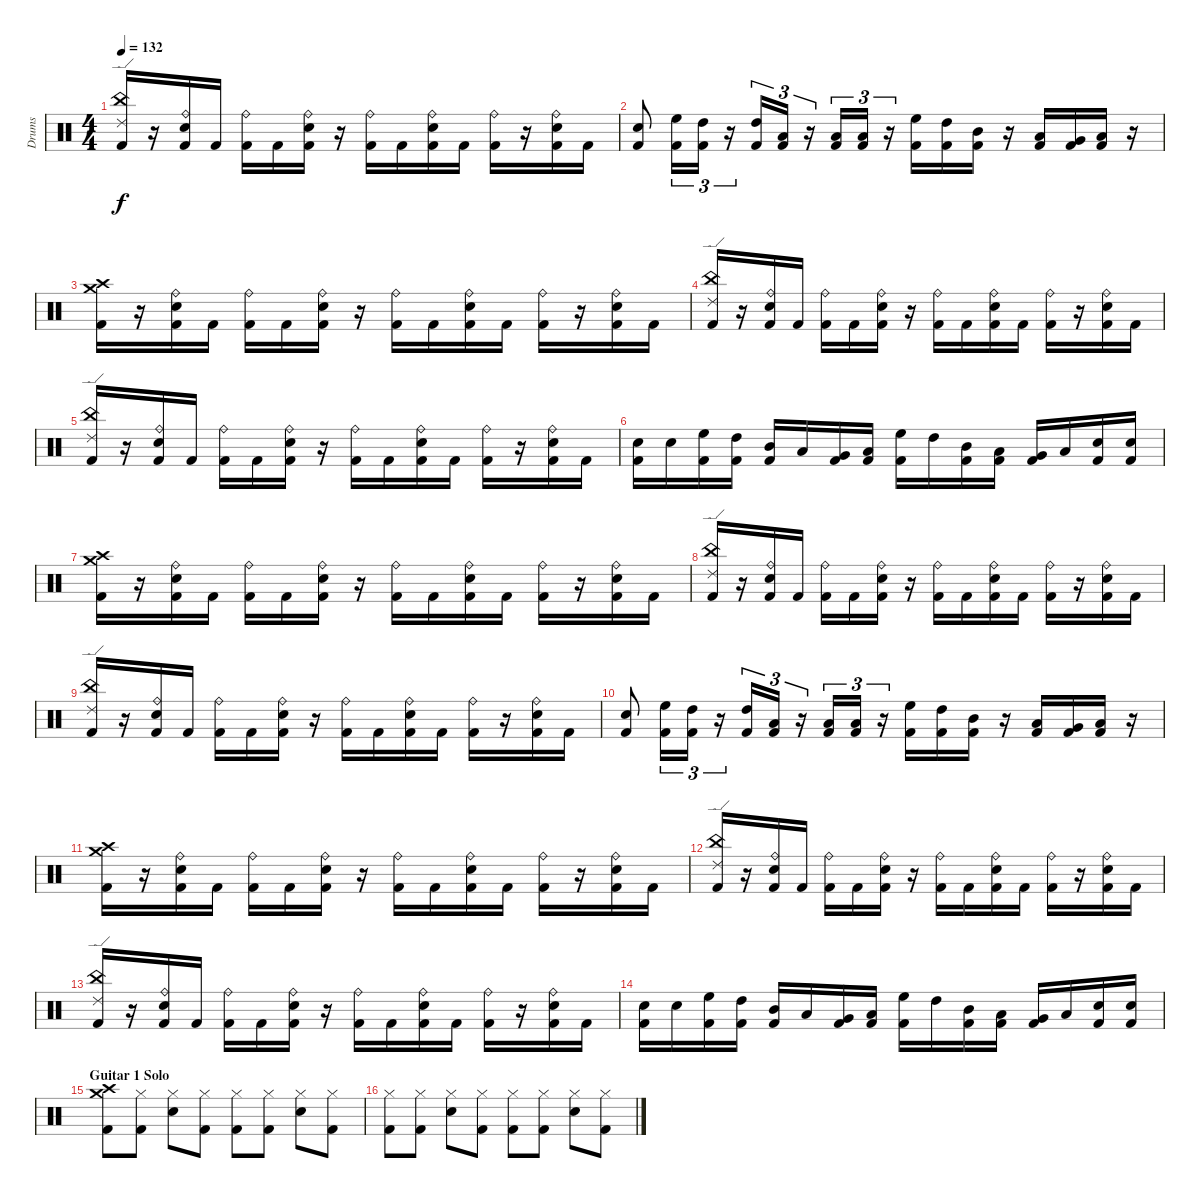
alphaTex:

\track ("Drums" "Drums") {instrument percussion}
\staff {score}
\articulation defaults
\ts (4 4)
\tempo 132
\clef neutral
\ks c
("Ride (edge) 2" "China (hit)" "Kick (hit) 2").16{dy f} r.16 ("Ride (bell)" "Electric Snare (hit)" "Kick (hit) 2").16 "Kick (hit) 2".16 ("Ride (bell)" "Kick (hit) 2").16 "Kick (hit) 2".16 ("Ride (bell)" "Electric Snare (hit)" "Kick (hit) 2").16 r.16 ("Ride (bell)" "Kick (hit) 2").16 "Kick (hit) 2".16 ("Ride (bell)" "Electric Snare (hit)" "Kick (hit) 2").16 "Kick (hit) 2".16 ("Ride (bell)" "Kick (hit) 2").16 r.16 ("Ride (bell)" "Electric Snare (hit)" "Kick (hit) 2").16 "Kick (hit) 2".16 |
("Electric Snare (hit)" "Kick (hit) 2").8 ("High Floor Tom (hit)" "Kick (hit) 2").16{tu (3 2)} ("High Tom (hit)" "Kick (hit) 2").16{tu (3 2)} r.16{tu (3 2)} ("High Tom (hit)" "Kick (hit) 2").16{tu (3 2)} ("Low Tom (hit)" "Kick (hit) 2").16{tu (3 2)} r.16{tu (3 2)} ("Low Tom (hit)" "Kick (hit) 2").16{tu (3 2)} ("Low Floor Tom (hit)" "Kick (hit) 2").16{tu (3 2)} r.16{tu (3 2)} ("High Floor Tom (hit)" "Kick (hit) 2").16 ("High Tom (hit)" "Kick (hit) 2").16 ("Mid Tom (hit)" "Kick (hit) 2").16 r.16 ("Low Tom (hit)" "Kick (hit) 2").16 ("Very Low Tom (hit)" "Kick (hit) 2").16 ("Low Floor Tom (hit)" "Kick (hit) 2").16 r.16 |
("Crash medium (hit)" "Crash high (hit)" "Kick (hit) 2").16 r.16 ("Ride (bell)" "Electric Snare (hit)" "Kick (hit) 2").16 "Kick (hit) 2".16 ("Ride (bell)" "Kick (hit) 2").16 "Kick (hit) 2".16 ("Ride (bell)" "Electric Snare (hit)" "Kick (hit) 2").16 r.16 ("Ride (bell)" "Kick (hit) 2").16 "Kick (hit) 2".16 ("Ride (bell)" "Electric Snare (hit)" "Kick (hit) 2").16 "Kick (hit) 2".16 ("Ride (bell)" "Kick (hit) 2").16 r.16 ("Ride (bell)" "Electric Snare (hit)" "Kick (hit) 2").16 "Kick (hit) 2".16 |
("Ride (edge) 2" "China (hit)" "Kick (hit) 2").16 r.16 ("Ride (bell)" "Electric Snare (hit)" "Kick (hit) 2").16 "Kick (hit) 2".16 ("Ride (bell)" "Kick (hit) 2").16 "Kick (hit) 2".16 ("Ride (bell)" "Electric Snare (hit)" "Kick (hit) 2").16 r.16 ("Ride (bell)" "Kick (hit) 2").16 "Kick (hit) 2".16 ("Ride (bell)" "Electric Snare (hit)" "Kick (hit) 2").16 "Kick (hit) 2".16 ("Ride (bell)" "Kick (hit) 2").16 r.16 ("Ride (bell)" "Electric Snare (hit)" "Kick (hit) 2").16 "Kick (hit) 2".16 |
("Ride (edge) 2" "China (hit)" "Kick (hit) 2").16 r.16 ("Ride (bell)" "Electric Snare (hit)" "Kick (hit) 2").16 "Kick (hit) 2".16 ("Ride (bell)" "Kick (hit) 2").16 "Kick (hit) 2".16 ("Ride (bell)" "Electric Snare (hit)" "Kick (hit) 2").16 r.16 ("Ride (bell)" "Kick (hit) 2").16 "Kick (hit) 2".16 ("Ride (bell)" "Electric Snare (hit)" "Kick (hit) 2").16 "Kick (hit) 2".16 ("Ride (bell)" "Kick (hit) 2").16 r.16 ("Ride (bell)" "Electric Snare (hit)" "Kick (hit) 2").16 "Kick (hit) 2".16 |
("Electric Snare (hit)" "Kick (hit) 2").16 "Electric Snare (hit)".16 ("High Floor Tom (hit)" "Kick (hit) 2").16 ("High Tom (hit)" "Kick (hit) 2").16 ("Mid Tom (hit)" "Kick (hit) 2").16 "Low Tom (hit)".16 ("Very Low Tom (hit)" "Kick (hit) 2").16 ("Low Floor Tom (hit)" "Kick (hit) 2").16 ("High Floor Tom (hit)" "Kick (hit) 2").16 "High Tom (hit)".16 ("Mid Tom (hit)" "Kick (hit) 2").16 ("Low Tom (hit)" "Kick (hit) 2").16 ("Very Low Tom (hit)" "Kick (hit) 2").16 "Low Floor Tom (hit)".16 ("Electric Snare (hit)" "Kick (hit) 2").16 ("Electric Snare (hit)" "Kick (hit) 2").16 |
("Crash medium (hit)" "Crash high (hit)" "Kick (hit) 2").16 r.16 ("Ride (bell)" "Electric Snare (hit)" "Kick (hit) 2").16 "Kick (hit) 2".16 ("Ride (bell)" "Kick (hit) 2").16 "Kick (hit) 2".16 ("Ride (bell)" "Electric Snare (hit)" "Kick (hit) 2").16 r.16 ("Ride (bell)" "Kick (hit) 2").16 "Kick (hit) 2".16 ("Ride (bell)" "Electric Snare (hit)" "Kick (hit) 2").16 "Kick (hit) 2".16 ("Ride (bell)" "Kick (hit) 2").16 r.16 ("Ride (bell)" "Electric Snare (hit)" "Kick (hit) 2").16 "Kick (hit) 2".16 |
("Ride (edge) 2" "China (hit)" "Kick (hit) 2").16 r.16 ("Ride (bell)" "Electric Snare (hit)" "Kick (hit) 2").16 "Kick (hit) 2".16 ("Ride (bell)" "Kick (hit) 2").16 "Kick (hit) 2".16 ("Ride (bell)" "Electric Snare (hit)" "Kick (hit) 2").16 r.16 ("Ride (bell)" "Kick (hit) 2").16 "Kick (hit) 2".16 ("Ride (bell)" "Electric Snare (hit)" "Kick (hit) 2").16 "Kick (hit) 2".16 ("Ride (bell)" "Kick (hit) 2").16 r.16 ("Ride (bell)" "Electric Snare (hit)" "Kick (hit) 2").16 "Kick (hit) 2".16 |
("Ride (edge) 2" "China (hit)" "Kick (hit) 2").16 r.16 ("Ride (bell)" "Electric Snare (hit)" "Kick (hit) 2").16 "Kick (hit) 2".16 ("Ride (bell)" "Kick (hit) 2").16 "Kick (hit) 2".16 ("Ride (bell)" "Electric Snare (hit)" "Kick (hit) 2").16 r.16 ("Ride (bell)" "Kick (hit) 2").16 "Kick (hit) 2".16 ("Ride (bell)" "Electric Snare (hit)" "Kick (hit) 2").16 "Kick (hit) 2".16 ("Ride (bell)" "Kick (hit) 2").16 r.16 ("Ride (bell)" "Electric Snare (hit)" "Kick (hit) 2").16 "Kick (hit) 2".16 |
("Electric Snare (hit)" "Kick (hit) 2").8 ("High Floor Tom (hit)" "Kick (hit) 2").16{tu (3 2)} ("High Tom (hit)" "Kick (hit) 2").16{tu (3 2)} r.16{tu (3 2)} ("High Tom (hit)" "Kick (hit) 2").16{tu (3 2)} ("Low Tom (hit)" "Kick (hit) 2").16{tu (3 2)} r.16{tu (3 2)} ("Low Tom (hit)" "Kick (hit) 2").16{tu (3 2)} ("Low Floor Tom (hit)" "Kick (hit) 2").16{tu (3 2)} r.16{tu (3 2)} ("High Floor Tom (hit)" "Kick (hit) 2").16 ("High Tom (hit)" "Kick (hit) 2").16 ("Mid Tom (hit)" "Kick (hit) 2").16 r.16 ("Low Tom (hit)" "Kick (hit) 2").16 ("Very Low Tom (hit)" "Kick (hit) 2").16 ("Low Floor Tom (hit)" "Kick (hit) 2").16 r.16 |
("Crash medium (hit)" "Crash high (hit)" "Kick (hit) 2").16 r.16 ("Ride (bell)" "Electric Snare (hit)" "Kick (hit) 2").16 "Kick (hit) 2".16 ("Ride (bell)" "Kick (hit) 2").16 "Kick (hit) 2".16 ("Ride (bell)" "Electric Snare (hit)" "Kick (hit) 2").16 r.16 ("Ride (bell)" "Kick (hit) 2").16 "Kick (hit) 2".16 ("Ride (bell)" "Electric Snare (hit)" "Kick (hit) 2").16 "Kick (hit) 2".16 ("Ride (bell)" "Kick (hit) 2").16 r.16 ("Ride (bell)" "Electric Snare (hit)" "Kick (hit) 2").16 "Kick (hit) 2".16 |
("Ride (edge) 2" "China (hit)" "Kick (hit) 2").16 r.16 ("Ride (bell)" "Electric Snare (hit)" "Kick (hit) 2").16 "Kick (hit) 2".16 ("Ride (bell)" "Kick (hit) 2").16 "Kick (hit) 2".16 ("Ride (bell)" "Electric Snare (hit)" "Kick (hit) 2").16 r.16 ("Ride (bell)" "Kick (hit) 2").16 "Kick (hit) 2".16 ("Ride (bell)" "Electric Snare (hit)" "Kick (hit) 2").16 "Kick (hit) 2".16 ("Ride (bell)" "Kick (hit) 2").16 r.16 ("Ride (bell)" "Electric Snare (hit)" "Kick (hit) 2").16 "Kick (hit) 2".16 |
("Ride (edge) 2" "China (hit)" "Kick (hit) 2").16 r.16 ("Ride (bell)" "Electric Snare (hit)" "Kick (hit) 2").16 "Kick (hit) 2".16 ("Ride (bell)" "Kick (hit) 2").16 "Kick (hit) 2".16 ("Ride (bell)" "Electric Snare (hit)" "Kick (hit) 2").16 r.16 ("Ride (bell)" "Kick (hit) 2").16 "Kick (hit) 2".16 ("Ride (bell)" "Electric Snare (hit)" "Kick (hit) 2").16 "Kick (hit) 2".16 ("Ride (bell)" "Kick (hit) 2").16 r.16 ("Ride (bell)" "Electric Snare (hit)" "Kick (hit) 2").16 "Kick (hit) 2".16 |
("Electric Snare (hit)" "Kick (hit) 2").16 "Electric Snare (hit)".16 ("High Floor Tom (hit)" "Kick (hit) 2").16 ("High Tom (hit)" "Kick (hit) 2").16 ("Mid Tom (hit)" "Kick (hit) 2").16 "Low Tom (hit)".16 ("Very Low Tom (hit)" "Kick (hit) 2").16 ("Low Floor Tom (hit)" "Kick (hit) 2").16 ("High Floor Tom (hit)" "Kick (hit) 2").16 "High Tom (hit)".16 ("Mid Tom (hit)" "Kick (hit) 2").16 ("Low Tom (hit)" "Kick (hit) 2").16 ("Very Low Tom (hit)" "Kick (hit) 2").16 "Low Floor Tom (hit)".16 ("Electric Snare (hit)" "Kick (hit) 2").16 ("Electric Snare (hit)" "Kick (hit) 2").16 |
\section ("" "Guitar 1 Solo")
("Crash medium (hit)" "Crash high (hit)" "Kick (hit) 2").8 ("Hi-Hat (closed)" "Kick (hit) 2").8 ("Hi-Hat (closed)" "Electric Snare (hit)").8 ("Hi-Hat (closed)" "Kick (hit) 2").8 ("Hi-Hat (closed)" "Kick (hit) 2").8 ("Hi-Hat (closed)" "Kick (hit) 2").8 ("Hi-Hat (closed)" "Electric Snare (hit)").8 ("Hi-Hat (closed)" "Kick (hit) 2").8 |
("Hi-Hat (closed)" "Kick (hit) 2").8 ("Hi-Hat (closed)" "Kick (hit) 2").8 ("Hi-Hat (closed)" "Electric Snare (hit)").8 ("Hi-Hat (closed)" "Kick (hit) 2").8 ("Hi-Hat (closed)" "Kick (hit) 2").8 ("Hi-Hat (closed)" "Kick (hit) 2").8 ("Hi-Hat (closed)" "Electric Snare (hit)").8 ("Hi-Hat (closed)" "Kick (hit) 2").8
